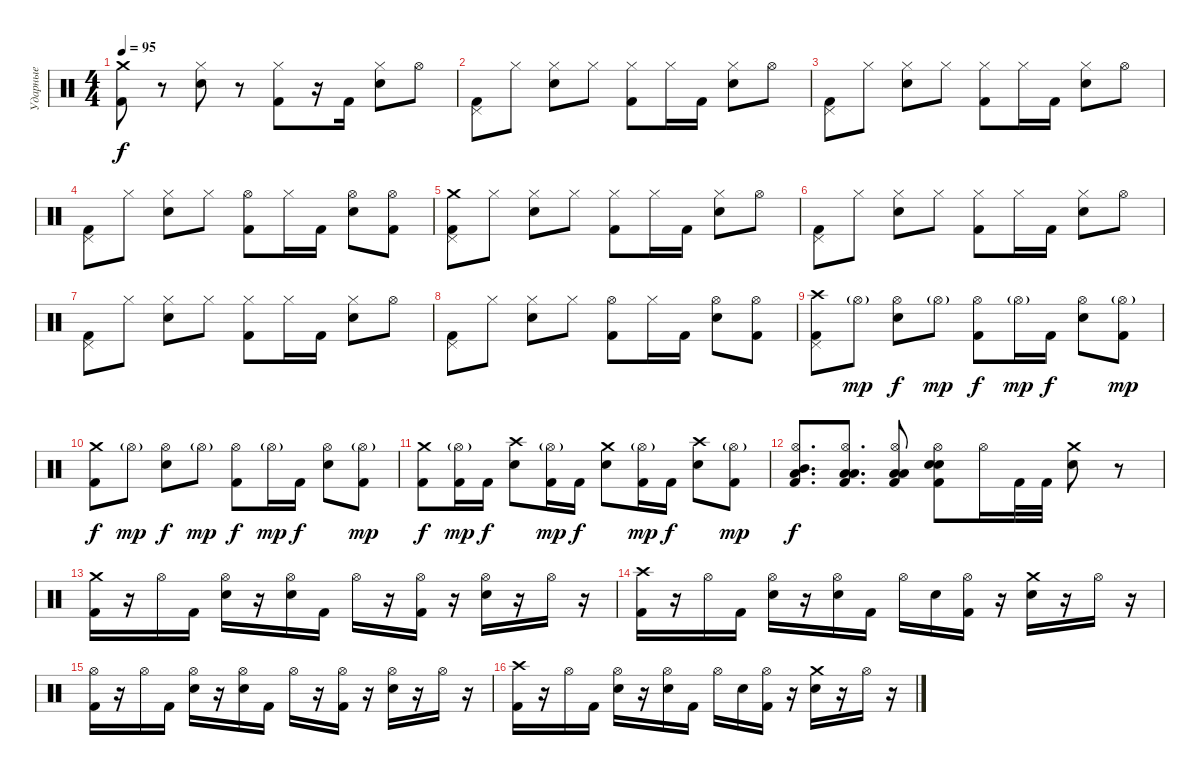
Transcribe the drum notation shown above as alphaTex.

\track ("Ударные" "Ударные") {instrument percussion}
\staff {score}
\articulation defaults
\ts (4 4)
\tempo 95
\clef neutral
\ks c
("Crash medium (hit)" "Kick (hit) 2").8{dy f} r.8 ("Hi-Hat (closed)" "Snare (hit) 2").8 r.8 ("Hi-Hat (closed)" "Kick (hit) 2").8 r.16 "Kick (hit) 2".16 ("Hi-Hat (closed)" "Snare (hit) 2").8 "Hi-Hat (open)".8 |
("Pedal Hi-Hat (hit)" "Kick (hit) 2").8 "Hi-Hat (closed)".8 ("Hi-Hat (closed)" "Snare (hit) 2").8 "Hi-Hat (closed)".8 ("Hi-Hat (closed)" "Kick (hit) 2").8 "Hi-Hat (closed)".16 "Kick (hit) 2".16 ("Hi-Hat (closed)" "Snare (hit) 2").8 "Hi-Hat (open)".8 |
("Pedal Hi-Hat (hit)" "Kick (hit) 2").8 "Hi-Hat (closed)".8 ("Hi-Hat (closed)" "Snare (hit) 2").8 "Hi-Hat (closed)".8 ("Hi-Hat (closed)" "Kick (hit) 2").8 "Hi-Hat (closed)".16 "Kick (hit) 2".16 ("Hi-Hat (closed)" "Snare (hit) 2").8 "Hi-Hat (open)".8 |
("Pedal Hi-Hat (hit)" "Kick (hit) 2").8 "Hi-Hat (closed)".8 ("Hi-Hat (closed)" "Snare (hit) 2").8 "Hi-Hat (closed)".8 ("Hi-Hat (open)" "Kick (hit) 2").8 "Hi-Hat (closed)".16 "Kick (hit) 2".16 ("Hi-Hat (open)" "Snare (hit) 2").8 ("Hi-Hat (open)" "Kick (hit) 2").8 |
("Crash medium (hit)" "Pedal Hi-Hat (hit)" "Kick (hit) 2").8 "Hi-Hat (closed)".8 ("Hi-Hat (closed)" "Snare (hit) 2").8 "Hi-Hat (closed)".8 ("Hi-Hat (closed)" "Kick (hit) 2").8 "Hi-Hat (closed)".16 "Kick (hit) 2".16 ("Hi-Hat (closed)" "Snare (hit) 2").8 "Hi-Hat (open)".8 |
("Pedal Hi-Hat (hit)" "Kick (hit) 2").8 "Hi-Hat (closed)".8 ("Hi-Hat (closed)" "Snare (hit) 2").8 "Hi-Hat (closed)".8 ("Hi-Hat (closed)" "Kick (hit) 2").8 "Hi-Hat (closed)".16 "Kick (hit) 2".16 ("Hi-Hat (closed)" "Snare (hit) 2").8 "Hi-Hat (open)".8 |
("Pedal Hi-Hat (hit)" "Kick (hit) 2").8 "Hi-Hat (closed)".8 ("Hi-Hat (closed)" "Snare (hit) 2").8 "Hi-Hat (closed)".8 ("Hi-Hat (closed)" "Kick (hit) 2").8 "Hi-Hat (closed)".16 "Kick (hit) 2".16 ("Hi-Hat (closed)" "Snare (hit) 2").8 "Hi-Hat (open)".8 |
("Pedal Hi-Hat (hit)" "Kick (hit) 2").8 "Hi-Hat (closed)".8 ("Hi-Hat (closed)" "Snare (hit) 2").8 "Hi-Hat (closed)".8 ("Hi-Hat (open)" "Kick (hit) 2").8 "Hi-Hat (closed)".16 "Kick (hit) 2".16 ("Hi-Hat (open)" "Snare (hit) 2").8 ("Hi-Hat (open)" "Kick (hit) 2").8 |
("Crash high (hit)" "Pedal Hi-Hat (hit)" "Kick (hit) 2").8 "Hi-Hat (open)"{g}.8{dy mp} ("Hi-Hat (open)" "Snare (hit) 2").8{dy f} "Hi-Hat (open)"{g}.8{dy mp} ("Hi-Hat (open)" "Kick (hit) 2").8{dy f} "Hi-Hat (open)"{g}.16{dy mp} "Kick (hit) 2".16{dy f} ("Hi-Hat (open)" "Snare (hit) 2").8 ("Hi-Hat (open)"{g} "Kick (hit) 2").8{dy mp} |
("Crash medium (hit)" "Kick (hit) 2").8{dy f} "Hi-Hat (open)"{g}.8{dy mp} ("Hi-Hat (open)" "Snare (hit) 2").8{dy f} "Hi-Hat (open)"{g}.8{dy mp} ("Hi-Hat (open)" "Kick (hit) 2").8{dy f} "Hi-Hat (open)"{g}.16{dy mp} "Kick (hit) 2".16{dy f} ("Hi-Hat (open)" "Snare (hit) 2").8 ("Hi-Hat (open)"{g} "Kick (hit) 2").8{dy mp} |
("Crash medium (hit)" "Kick (hit) 2").8{dy f} ("Hi-Hat (open)"{g} "Kick (hit) 2").16{dy mp} "Kick (hit) 2".16{dy f} ("Crash high (hit)" "Snare (hit) 2").8 ("Hi-Hat (open)"{g} "Kick (hit) 2").16{dy mp} "Kick (hit) 2".16{dy f} ("Crash medium (hit)" "Snare (hit) 2").8 ("Hi-Hat (open)"{g} "Kick (hit) 2").16{dy mp} "Kick (hit) 2".16{dy f} ("Crash high (hit)" "Snare (hit) 2").8 ("Hi-Hat (open)"{g} "Kick (hit) 2").8{dy mp} |
("Hi-Hat (open)" "Low Floor Tom (hit)" "Mid Tom (hit)" "Kick (hit) 2").8{d dy f} ("Hi-Hat (open)" "Low Floor Tom (hit)" "Low Tom (hit)" "Kick (hit) 2").8{d} ("Hi-Hat (open)" "Low Floor Tom (hit)" "Low Tom (hit)" "Kick (hit) 2").8 ("Hi-Hat (open)" "Electric Snare (hit)" "Snare (hit) 2" "Kick (hit) 2").8 "Hi-Hat (open)".16 "Kick (hit) 2".32 "Kick (hit) 2".32 ("Crash medium (hit)" "Snare (hit) 2").8 r.8 |
("Crash medium (hit)" "Kick (hit) 2").16 r.16 "Hi-Hat (open)".16 "Kick (hit) 2".16 ("Hi-Hat (open)" "Snare (hit) 2").16 r.16 ("Hi-Hat (open)" "Snare (hit) 2").16 "Kick (hit) 2".16 "Hi-Hat (open)".16 r.16 ("Hi-Hat (open)" "Kick (hit) 2").16 r.16 ("Hi-Hat (open)" "Snare (hit) 2").16 r.16 "Hi-Hat (open)".16 r.16 |
("Crash high (hit)" "Kick (hit) 2").16 r.16 "Hi-Hat (open)".16 "Kick (hit) 2".16 ("Hi-Hat (open)" "Snare (hit) 2").16 r.16 ("Hi-Hat (open)" "Snare (hit) 2").16 "Kick (hit) 2".16 "Hi-Hat (open)".16 "Snare (hit) 2".16 ("Hi-Hat (open)" "Kick (hit) 2").16 r.16 ("Crash medium (hit)" "Snare (hit) 2").16 r.16 "Hi-Hat (open)".16 r.16 |
("Hi-Hat (open)" "Kick (hit) 2").16 r.16 "Hi-Hat (open)".16 "Kick (hit) 2".16 ("Hi-Hat (open)" "Snare (hit) 2").16 r.16 ("Hi-Hat (open)" "Snare (hit) 2").16 "Kick (hit) 2".16 "Hi-Hat (open)".16 r.16 ("Hi-Hat (open)" "Kick (hit) 2").16 r.16 ("Hi-Hat (open)" "Snare (hit) 2").16 r.16 "Hi-Hat (open)".16 r.16 |
("Crash high (hit)" "Kick (hit) 2").16 r.16 "Hi-Hat (open)".16 "Kick (hit) 2".16 ("Hi-Hat (open)" "Snare (hit) 2").16 r.16 ("Hi-Hat (open)" "Snare (hit) 2").16 "Kick (hit) 2".16 "Hi-Hat (open)".16 "Snare (hit) 2".16 ("Hi-Hat (open)" "Kick (hit) 2").16 r.16 ("Crash medium (hit)" "Snare (hit) 2").16 r.16 "Hi-Hat (open)".16 r.16
